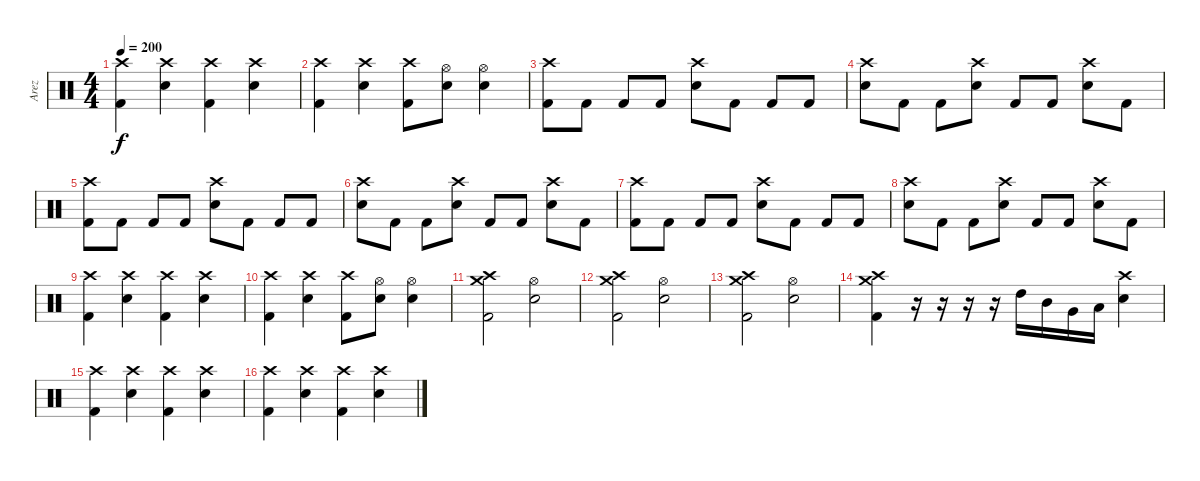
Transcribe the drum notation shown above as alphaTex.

\track ("Arez" "Arez") {instrument percussion}
\staff {score}
\articulation defaults
\ts (4 4)
\tempo 200
\clef neutral
\ks c
("Crash high (hit)" "Kick (hit) 2").4{dy f} ("Electric Snare (hit)" "Crash high (hit)").4 ("Crash high (hit)" "Kick (hit) 2").4 ("Electric Snare (hit)" "Crash high (hit)").4 |
("Crash high (hit)" "Kick (hit) 2").4 ("Electric Snare (hit)" "Crash high (hit)").4 ("Crash high (hit)" "Kick (hit) 2").8 ("Hi-Hat (open)" "Electric Snare (hit)").8 ("Hi-Hat (open)" "Electric Snare (hit)").4 |
("Crash high (hit)" "Kick (hit) 2").8 "Kick (hit) 2".8 "Kick (hit) 2".8 "Kick (hit) 2".8 ("Electric Snare (hit)" "Crash high (hit)").8 "Kick (hit) 2".8 "Kick (hit) 2".8 "Kick (hit) 2".8 |
("Crash high (hit)" "Electric Snare (hit)").8 "Kick (hit) 2".8 "Kick (hit) 2".8 ("Crash high (hit)" "Electric Snare (hit)").8 "Kick (hit) 2".8 "Kick (hit) 2".8 ("Electric Snare (hit)" "Crash high (hit)").8 "Kick (hit) 2".8 |
("Crash high (hit)" "Kick (hit) 2").8 "Kick (hit) 2".8 "Kick (hit) 2".8 "Kick (hit) 2".8 ("Electric Snare (hit)" "Crash high (hit)").8 "Kick (hit) 2".8 "Kick (hit) 2".8 "Kick (hit) 2".8 |
("Crash high (hit)" "Electric Snare (hit)").8 "Kick (hit) 2".8 "Kick (hit) 2".8 ("Crash high (hit)" "Electric Snare (hit)").8 "Kick (hit) 2".8 "Kick (hit) 2".8 ("Electric Snare (hit)" "Crash high (hit)").8 "Kick (hit) 2".8 |
("Crash high (hit)" "Kick (hit) 2").8 "Kick (hit) 2".8 "Kick (hit) 2".8 "Kick (hit) 2".8 ("Electric Snare (hit)" "Crash high (hit)").8 "Kick (hit) 2".8 "Kick (hit) 2".8 "Kick (hit) 2".8 |
("Crash high (hit)" "Electric Snare (hit)").8 "Kick (hit) 2".8 "Kick (hit) 2".8 ("Crash high (hit)" "Electric Snare (hit)").8 "Kick (hit) 2".8 "Kick (hit) 2".8 ("Electric Snare (hit)" "Crash high (hit)").8 "Kick (hit) 2".8 |
("Crash high (hit)" "Kick (hit) 2").4 ("Electric Snare (hit)" "Crash high (hit)").4 ("Crash high (hit)" "Kick (hit) 2").4 ("Electric Snare (hit)" "Crash high (hit)").4 |
("Crash high (hit)" "Kick (hit) 2").4 ("Electric Snare (hit)" "Crash high (hit)").4 ("Crash high (hit)" "Kick (hit) 2").8 ("Hi-Hat (open)" "Electric Snare (hit)").8 ("Hi-Hat (open)" "Electric Snare (hit)").4 |
("Crash high (hit)" "Crash medium (hit)" "Kick (hit) 2").2 ("Hi-Hat (open)" "Electric Snare (hit)").2 |
("Crash high (hit)" "Crash medium (hit)" "Kick (hit) 2").2 ("Hi-Hat (open)" "Electric Snare (hit)").2 |
("Crash high (hit)" "Crash medium (hit)" "Kick (hit) 2").2 ("Hi-Hat (open)" "Electric Snare (hit)").2 |
("Crash high (hit)" "Crash medium (hit)" "Kick (hit) 2").4 r.16 r.16 r.16 r.16 "High Tom (hit)".16 "Mid Tom (hit)".16 "Very Low Tom (hit)".16 "Low Floor Tom (hit)".16 ("Crash high (hit)" "Electric Snare (hit)").4 |
("Kick (hit) 2" "Crash high (hit)").4 ("Crash high (hit)" "Electric Snare (hit)").4 ("Kick (hit) 2" "Crash high (hit)").4 ("Crash high (hit)" "Electric Snare (hit)").4 |
("Kick (hit) 2" "Crash high (hit)").4 ("Crash high (hit)" "Electric Snare (hit)").4 ("Kick (hit) 2" "Crash high (hit)").4 ("Crash high (hit)" "Electric Snare (hit)").4
